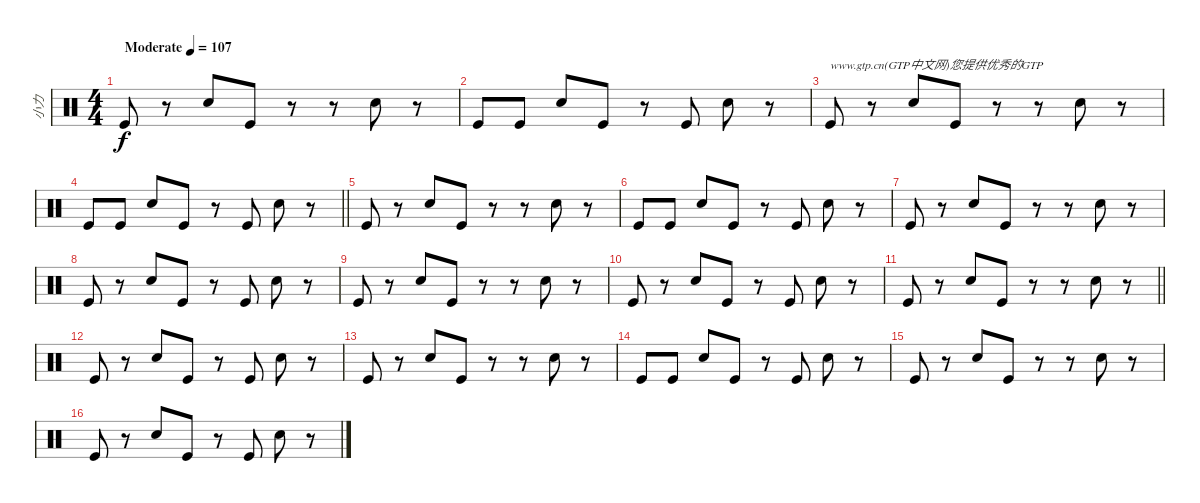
\track ("小力" "小力") {instrument percussion}
\staff {score}
\articulation defaults
\ts (4 4)
\tempo (107 "Moderate")
\clef neutral
\ks c "Kick (hit)".8{dy f}
r.8 "Electric Snare (hit)".8 "Kick (hit)".8 r.8 r.8 "Electric Snare (hit)".8 r.8 |
"Kick (hit)".8 "Kick (hit)".8 "Electric Snare (hit)".8 "Kick (hit)".8 r.8 "Kick (hit)".8 "Electric Snare (hit)".8 r.8 |
"Kick (hit)".8{txt "www.gtp.cn(GTP中文网)您提供优秀的GTP"} r.8 "Electric Snare (hit)".8 "Kick (hit)".8 r.8 r.8 "Electric Snare (hit)".8 r.8 |
\barLineRight lightlight "Kick (hit)".8 "Kick (hit)".8 "Electric Snare (hit)".8 "Kick (hit)".8
r.8 "Kick (hit)".8 "Electric Snare (hit)".8 r.8 |
"Kick (hit)".8 r.8 "Electric Snare (hit)".8 "Kick (hit)".8 r.8 r.8 "Electric Snare (hit)".8 r.8 |
"Kick (hit)".8 "Kick (hit)".8 "Electric Snare (hit)".8 "Kick (hit)".8 r.8 "Kick (hit)".8 "Electric Snare (hit)".8 r.8 |
"Kick (hit)".8 r.8 "Electric Snare (hit)".8 "Kick (hit)".8 r.8 r.8 "Electric Snare (hit)".8 r.8 |
"Kick (hit)".8 r.8 "Electric Snare (hit)".8 "Kick (hit)".8 r.8 "Kick (hit)".8 "Electric Snare (hit)".8 r.8 |
"Kick (hit)".8 r.8 "Electric Snare (hit)".8 "Kick (hit)".8 r.8 r.8 "Electric Snare (hit)".8 r.8 |
"Kick (hit)".8 r.8 "Electric Snare (hit)".8 "Kick (hit)".8 r.8 "Kick (hit)".8 "Electric Snare (hit)".8 r.8 |
\barLineRight lightlight "Kick (hit)".8
r.8 "Electric Snare (hit)".8 "Kick (hit)".8 r.8 r.8 "Electric Snare (hit)".8 r.8 |
"Kick (hit)".8 r.8 "Electric Snare (hit)".8 "Kick (hit)".8 r.8 "Kick (hit)".8 "Electric Snare (hit)".8 r.8 |
"Kick (hit)".8 r.8 "Electric Snare (hit)".8 "Kick (hit)".8 r.8 r.8 "Electric Snare (hit)".8 r.8 |
"Kick (hit)".8 "Kick (hit)".8 "Electric Snare (hit)".8 "Kick (hit)".8 r.8 "Kick (hit)".8 "Electric Snare (hit)".8 r.8 |
"Kick (hit)".8 r.8 "Electric Snare (hit)".8 "Kick (hit)".8 r.8 r.8 "Electric Snare (hit)".8 r.8 |
"Kick (hit)".8 r.8 "Electric Snare (hit)".8 "Kick (hit)".8 r.8 "Kick (hit)".8 "Electric Snare (hit)".8 r.8
